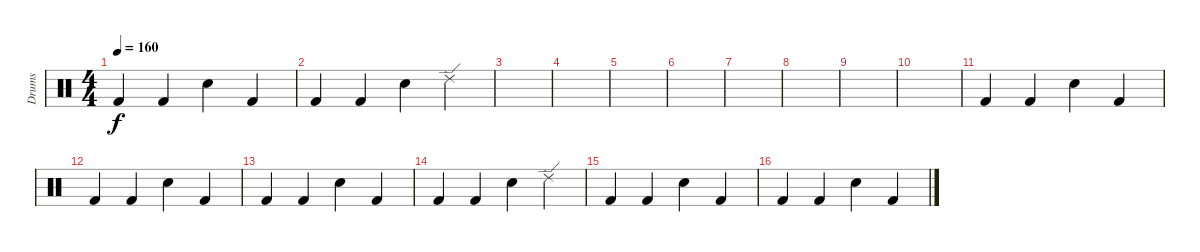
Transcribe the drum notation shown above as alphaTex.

\track ("Drums" "Drums") {instrument percussion}
\staff {score}
\articulation defaults
\ts (4 4)
\tempo 160
\clef neutral
\ks c "Kick (hit) 2".4{dy f} "Kick (hit) 2".4 "Snare (hit) 2".4 "Kick (hit) 2".4
|
"Kick (hit) 2".4 "Kick (hit) 2".4 "Snare (hit) 2".4 "Ride (edge) 2".4 |
|
|
|
|
|
|
|
|
"Kick (hit) 2".4 "Kick (hit) 2".4 "Snare (hit) 2".4 "Kick (hit) 2".4 |
"Kick (hit) 2".4 "Kick (hit) 2".4 "Snare (hit) 2".4 "Kick (hit) 2".4 |
"Kick (hit) 2".4 "Kick (hit) 2".4 "Snare (hit) 2".4 "Kick (hit) 2".4 |
"Kick (hit) 2".4 "Kick (hit) 2".4 "Snare (hit) 2".4 "Ride (edge) 2".4 |
"Kick (hit) 2".4 "Kick (hit) 2".4 "Snare (hit) 2".4 "Kick (hit) 2".4 |
"Kick (hit) 2".4 "Kick (hit) 2".4 "Snare (hit) 2".4 "Kick (hit) 2".4
